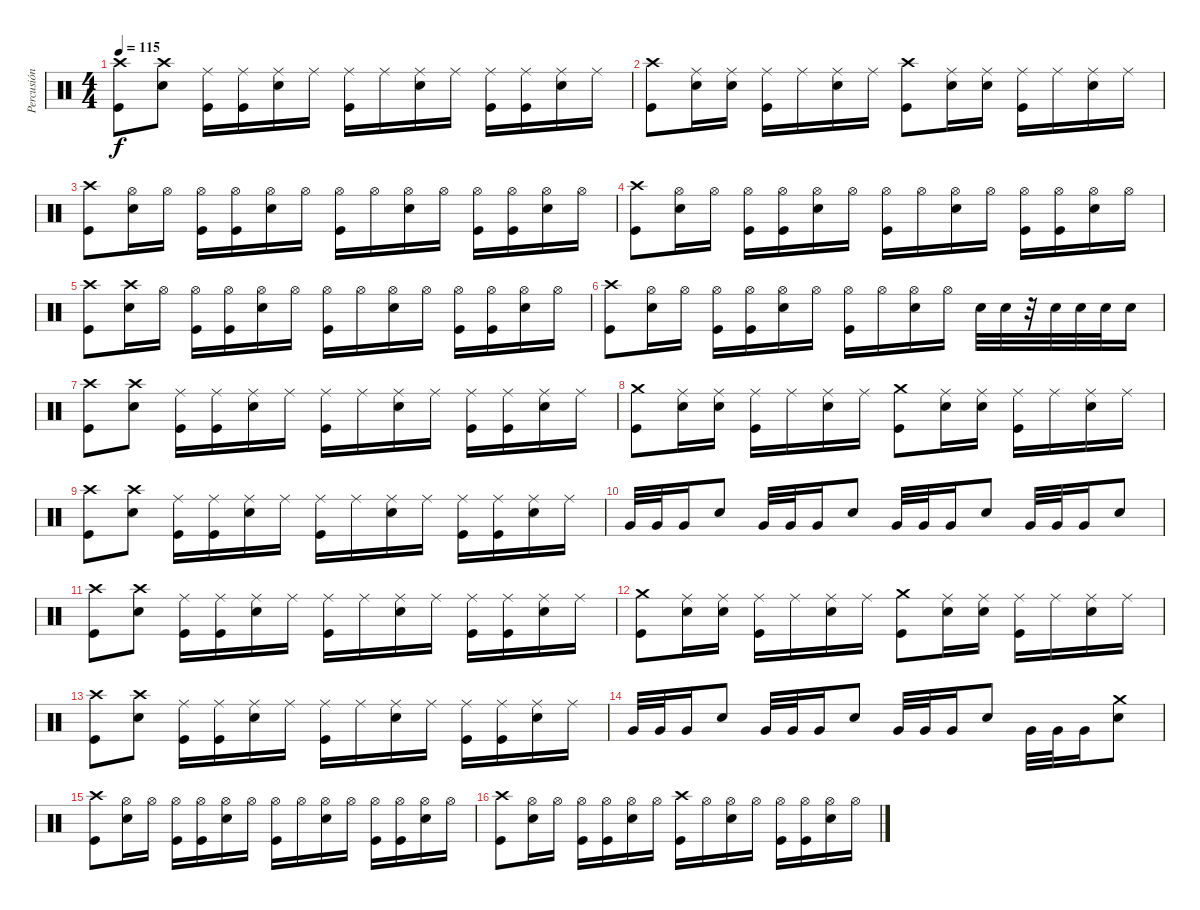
\track ("Percusión" "Percusión") {instrument percussion}
\staff {score}
\articulation defaults
\ts (4 4)
\tempo 115
\clef neutral
\ks c
("Kick (hit)" "Crash high (hit)").8{dy f} ("Snare (hit) 2" "Crash high (hit)").8 ("Kick (hit)" "Ride (middle)").16 ("Kick (hit)" "Ride (middle)").16 ("Snare (hit) 2" "Ride (middle)").16 "Ride (middle)".16 ("Kick (hit)" "Ride (middle)").16 "Ride (middle)".16 ("Snare (hit) 2" "Ride (middle)").16 "Ride (middle)".16 ("Kick (hit)" "Ride (middle)").16 ("Kick (hit)" "Ride (middle)").16 ("Snare (hit) 2" "Ride (middle)").16 "Ride (middle)".16 |
("Kick (hit)" "Crash high (hit)").8 ("Snare (hit) 2" "Ride (middle)").16 ("Snare (hit) 2" "Ride (middle)").16 ("Kick (hit)" "Ride (middle)").16 "Ride (middle)".16 ("Snare (hit) 2" "Ride (middle)").16 "Ride (middle)".16 ("Kick (hit)" "Crash high (hit)").8 ("Snare (hit) 2" "Ride (middle)").16 ("Snare (hit) 2" "Ride (middle)").16 ("Kick (hit)" "Ride (middle)").16 "Ride (middle)".16 ("Snare (hit) 2" "Ride (middle)").16 "Ride (middle)".16 |
("Kick (hit)" "Crash high (hit)").8 ("Snare (hit) 2" "Hi-Hat (open)").16 "Hi-Hat (open)".16 ("Kick (hit)" "Hi-Hat (open)").16 ("Kick (hit)" "Hi-Hat (open)").16 ("Snare (hit) 2" "Hi-Hat (open)").16 "Hi-Hat (open)".16 ("Kick (hit)" "Hi-Hat (open)").16 "Hi-Hat (open)".16 ("Snare (hit) 2" "Hi-Hat (open)").16 "Hi-Hat (open)".16 ("Kick (hit)" "Hi-Hat (open)").16 ("Kick (hit)" "Hi-Hat (open)").16 ("Snare (hit) 2" "Hi-Hat (open)").16 "Hi-Hat (open)".16 |
("Kick (hit)" "Crash high (hit)").8 ("Snare (hit) 2" "Hi-Hat (open)").16 "Hi-Hat (open)".16 ("Kick (hit)" "Hi-Hat (open)").16 ("Kick (hit)" "Hi-Hat (open)").16 ("Snare (hit) 2" "Hi-Hat (open)").16 "Hi-Hat (open)".16 ("Kick (hit)" "Hi-Hat (open)").16 "Hi-Hat (open)".16 ("Snare (hit) 2" "Hi-Hat (open)").16 "Hi-Hat (open)".16 ("Kick (hit)" "Hi-Hat (open)").16 ("Kick (hit)" "Hi-Hat (open)").16 ("Snare (hit) 2" "Hi-Hat (open)").16 "Hi-Hat (open)".16 |
("Kick (hit)" "Crash high (hit)").8 ("Snare (hit) 2" "Crash high (hit)").16 "Hi-Hat (open)".16 ("Kick (hit)" "Hi-Hat (open)").16 ("Kick (hit)" "Hi-Hat (open)").16 ("Snare (hit) 2" "Hi-Hat (open)").16 "Hi-Hat (open)".16 ("Kick (hit)" "Hi-Hat (open)").16 "Hi-Hat (open)".16 ("Snare (hit) 2" "Hi-Hat (open)").16 "Hi-Hat (open)".16 ("Kick (hit)" "Hi-Hat (open)").16 ("Kick (hit)" "Hi-Hat (open)").16 ("Snare (hit) 2" "Hi-Hat (open)").16 "Hi-Hat (open)".16 |
("Kick (hit)" "Crash high (hit)").8 ("Snare (hit) 2" "Hi-Hat (open)").16 "Hi-Hat (open)".16 ("Kick (hit)" "Hi-Hat (open)").16 ("Kick (hit)" "Hi-Hat (open)").16 ("Snare (hit) 2" "Hi-Hat (open)").16 "Hi-Hat (open)".16 ("Kick (hit)" "Hi-Hat (open)").16 "Hi-Hat (open)".16 ("Snare (hit) 2" "Hi-Hat (open)").16 "Hi-Hat (open)".16 "Snare (hit) 2".32 "Snare (hit) 2".32 r.32 "Snare (hit) 2".32 "Snare (hit) 2".32 "Snare (hit) 2".32 "Snare (hit) 2".16 |
("Kick (hit)" "Crash high (hit)").8 ("Snare (hit) 2" "Crash high (hit)").8 ("Kick (hit)" "Ride (middle)").16 ("Kick (hit)" "Ride (middle)").16 ("Snare (hit) 2" "Ride (middle)").16 "Ride (middle)".16 ("Kick (hit)" "Ride (middle)").16 "Ride (middle)".16 ("Snare (hit) 2" "Ride (middle)").16 "Ride (middle)".16 ("Kick (hit)" "Ride (middle)").16 ("Kick (hit)" "Ride (middle)").16 ("Snare (hit) 2" "Ride (middle)").16 "Ride (middle)".16 |
("Kick (hit)" "Crash medium (hit)").8 ("Snare (hit) 2" "Ride (middle)").16 ("Snare (hit) 2" "Ride (middle)").16 ("Kick (hit)" "Ride (middle)").16 "Ride (middle)".16 ("Snare (hit) 2" "Ride (middle)").16 "Ride (middle)".16 ("Kick (hit)" "Crash medium (hit)").8 ("Snare (hit) 2" "Ride (middle)").16 ("Snare (hit) 2" "Ride (middle)").16 ("Kick (hit)" "Ride (middle)").16 "Ride (middle)".16 ("Snare (hit) 2" "Ride (middle)").16 "Ride (middle)".16 |
("Kick (hit)" "Crash high (hit)").8 ("Snare (hit) 2" "Crash high (hit)").8 ("Kick (hit)" "Ride (middle)").16 ("Kick (hit)" "Ride (middle)").16 ("Snare (hit) 2" "Ride (middle)").16 "Ride (middle)".16 ("Kick (hit)" "Ride (middle)").16 "Ride (middle)".16 ("Snare (hit) 2" "Ride (middle)").16 "Ride (middle)".16 ("Kick (hit)" "Ride (middle)").16 ("Kick (hit)" "Ride (middle)").16 ("Snare (hit) 2" "Ride (middle)").16 "Ride (middle)".16 |
"Very Low Tom (hit)".32 "Very Low Tom (hit)".32 "Very Low Tom (hit)".16 "Snare (hit) 2".8 "Very Low Tom (hit)".32 "Very Low Tom (hit)".32 "Very Low Tom (hit)".16 "Snare (hit) 2".8 "Very Low Tom (hit)".32 "Very Low Tom (hit)".32 "Very Low Tom (hit)".16 "Snare (hit) 2".8 "Very Low Tom (hit)".32 "Very Low Tom (hit)".32 "Very Low Tom (hit)".16 "Snare (hit) 2".8 |
("Kick (hit)" "Crash high (hit)").8 ("Snare (hit) 2" "Crash high (hit)").8 ("Kick (hit)" "Ride (middle)").16 ("Kick (hit)" "Ride (middle)").16 ("Snare (hit) 2" "Ride (middle)").16 "Ride (middle)".16 ("Kick (hit)" "Ride (middle)").16 "Ride (middle)".16 ("Snare (hit) 2" "Ride (middle)").16 "Ride (middle)".16 ("Kick (hit)" "Ride (middle)").16 ("Kick (hit)" "Ride (middle)").16 ("Snare (hit) 2" "Ride (middle)").16 "Ride (middle)".16 |
("Kick (hit)" "Crash medium (hit)").8 ("Snare (hit) 2" "Ride (middle)").16 ("Snare (hit) 2" "Ride (middle)").16 ("Kick (hit)" "Ride (middle)").16 "Ride (middle)".16 ("Snare (hit) 2" "Ride (middle)").16 "Ride (middle)".16 ("Kick (hit)" "Crash medium (hit)").8 ("Snare (hit) 2" "Ride (middle)").16 ("Snare (hit) 2" "Ride (middle)").16 ("Kick (hit)" "Ride (middle)").16 "Ride (middle)".16 ("Snare (hit) 2" "Ride (middle)").16 "Ride (middle)".16 |
("Kick (hit)" "Crash high (hit)").8 ("Snare (hit) 2" "Crash high (hit)").8 ("Kick (hit)" "Ride (middle)").16 ("Kick (hit)" "Ride (middle)").16 ("Snare (hit) 2" "Ride (middle)").16 "Ride (middle)".16 ("Kick (hit)" "Ride (middle)").16 "Ride (middle)".16 ("Snare (hit) 2" "Ride (middle)").16 "Ride (middle)".16 ("Kick (hit)" "Ride (middle)").16 ("Kick (hit)" "Ride (middle)").16 ("Snare (hit) 2" "Ride (middle)").16 "Ride (middle)".16 |
"Very Low Tom (hit)".32 "Very Low Tom (hit)".32 "Very Low Tom (hit)".16 "Snare (hit) 2".8 "Very Low Tom (hit)".32 "Very Low Tom (hit)".32 "Very Low Tom (hit)".16 "Snare (hit) 2".8 "Very Low Tom (hit)".32 "Very Low Tom (hit)".32 "Very Low Tom (hit)".16 "Snare (hit) 2".8 "Very Low Tom (hit)".32 "Very Low Tom (hit)".32 "Very Low Tom (hit)".16 ("Crash medium (hit)" "Snare (hit) 2").8 |
("Kick (hit)" "Crash high (hit)").8 ("Snare (hit) 2" "Hi-Hat (open)").16 "Hi-Hat (open)".16 ("Kick (hit)" "Hi-Hat (open)").16 ("Kick (hit)" "Hi-Hat (open)").16 ("Snare (hit) 2" "Hi-Hat (open)").16 "Hi-Hat (open)".16 ("Kick (hit)" "Hi-Hat (open)").16 "Hi-Hat (open)".16 ("Snare (hit) 2" "Hi-Hat (open)").16 "Hi-Hat (open)".16 ("Kick (hit)" "Hi-Hat (open)").16 ("Kick (hit)" "Hi-Hat (open)").16 ("Snare (hit) 2" "Hi-Hat (open)").16 "Hi-Hat (open)".16 |
("Kick (hit)" "Crash high (hit)").8 ("Snare (hit) 2" "Hi-Hat (open)").16 "Hi-Hat (open)".16 ("Kick (hit)" "Hi-Hat (open)").16 ("Kick (hit)" "Hi-Hat (open)").16 ("Snare (hit) 2" "Hi-Hat (open)").16 "Hi-Hat (open)".16 ("Kick (hit)" "Crash high (hit)").16 "Hi-Hat (open)".16 ("Snare (hit) 2" "Hi-Hat (open)").16 "Hi-Hat (open)".16 ("Kick (hit)" "Hi-Hat (open)").16 ("Kick (hit)" "Hi-Hat (open)").16 ("Snare (hit) 2" "Hi-Hat (open)").16 "Hi-Hat (open)".16
